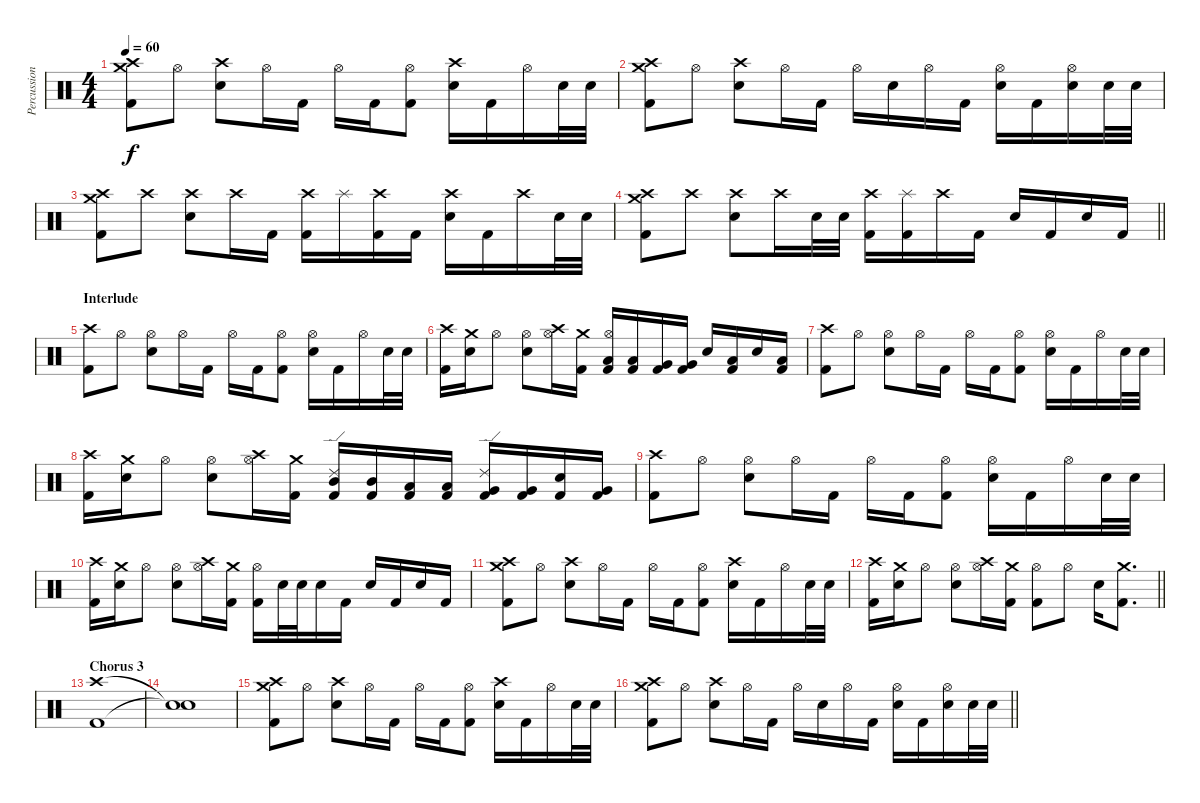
\track ("Percussion" "Percussion") {instrument percussion}
\staff {score}
\articulation defaults
\ts (4 4)
\tempo 60
\clef neutral
\ks c
("Crash medium (hit)" "Crash high (hit)" "Kick (hit) 2").8{dy f} "Hi-Hat (open)".8 ("Crash high (hit)" "Electric Snare (hit)").8 "Hi-Hat (open)".16 "Kick (hit) 2".16 "Hi-Hat (open)".16 "Kick (hit) 2".16 ("Hi-Hat (open)" "Kick (hit) 2").8 ("Crash high (hit)" "Electric Snare (hit)").16 "Kick (hit) 2".16 "Hi-Hat (open)".16 "Electric Snare (hit)".32 "Electric Snare (hit)".32 |
("Crash medium (hit)" "Crash high (hit)" "Kick (hit) 2").8 "Hi-Hat (open)".8 ("Crash high (hit)" "Electric Snare (hit)").8 "Hi-Hat (open)".16 "Kick (hit) 2".16 "Hi-Hat (open)".16 "Electric Snare (hit)".16 "Hi-Hat (open)".16 "Kick (hit) 2".16 ("Hi-Hat (open)" "Electric Snare (hit)").16 "Kick (hit) 2".16 ("Hi-Hat (open)" "Electric Snare (hit)").16 "Electric Snare (hit)".32 "Electric Snare (hit)".32 |
("Crash medium (hit)" "Crash high (hit)" "Kick (hit) 2").8 "Crash high (hit)".8 ("Crash high (hit)" "Electric Snare (hit)").8 "Crash high (hit)".16 "Kick (hit) 2".16 ("Crash high (hit)" "Kick (hit) 2").16 "Splash (hit)".16 ("Crash high (hit)" "Kick (hit) 2").16 "Kick (hit) 2".16 ("Crash high (hit)" "Electric Snare (hit)").16 "Kick (hit) 2".16 "Crash high (hit)".16 "Electric Snare (hit)".32 "Electric Snare (hit)".32 |
\barLineRight lightlight
("Crash medium (hit)" "Crash high (hit)" "Kick (hit) 2").8 "Crash high (hit)".8 ("Crash high (hit)" "Electric Snare (hit)").8 "Crash high (hit)".16 "Electric Snare (hit)".32 "Electric Snare (hit)".32 ("Crash high (hit)" "Kick (hit) 2").16 ("Splash (hit)" "Kick (hit) 2").16 "Crash high (hit)".16 "Kick (hit) 2".16 "Electric Snare (hit)".16 "Kick (hit) 2".16 "Electric Snare (hit)".16 "Kick (hit) 2".16 |
\section ("" "Interlude ")
("Crash high (hit)" "Kick (hit) 2").8 "Hi-Hat (open)".8 ("Hi-Hat (open)" "Electric Snare (hit)").8 "Hi-Hat (open)".16 "Kick (hit) 2".16 "Hi-Hat (open)".16 "Kick (hit) 2".16 ("Hi-Hat (open)" "Kick (hit) 2").8 ("Hi-Hat (open)" "Electric Snare (hit)").16 "Kick (hit) 2".16 "Hi-Hat (open)".16 "Electric Snare (hit)".32 "Electric Snare (hit)".32 |
("Crash high (hit)" "Kick (hit) 2").16 ("Crash medium (hit)" "Electric Snare (hit)").16 "Hi-Hat (open)".8 ("Hi-Hat (open)" "Electric Snare (hit)").8 ("Crash high (hit)" "Hi-Hat (open)").16 ("Crash medium (hit)" "Kick (hit) 2").16 ("Hi-Hat (open)" "Low Tom (hit)" "Kick (hit) 2").16 ("Low Tom (hit)" "Kick (hit) 2").16 ("Very Low Tom (hit)" "Kick (hit) 2").16 ("Very Low Tom (hit)" "Kick (hit) 2").16 "Electric Snare (hit)".16 ("Low Tom (hit)" "Kick (hit) 2").16 "Electric Snare (hit)".16 ("Low Tom (hit)" "Kick (hit) 2").16 |
("Crash high (hit)" "Kick (hit) 2").8 "Hi-Hat (open)".8 ("Hi-Hat (open)" "Electric Snare (hit)").8 "Hi-Hat (open)".16 "Kick (hit) 2".16 "Hi-Hat (open)".16 "Kick (hit) 2".16 ("Hi-Hat (open)" "Kick (hit) 2").8 ("Hi-Hat (open)" "Electric Snare (hit)").16 "Kick (hit) 2".16 "Hi-Hat (open)".16 "Electric Snare (hit)".32 "Electric Snare (hit)".32 |
("Crash high (hit)" "Kick (hit) 2").16 ("Crash medium (hit)" "Electric Snare (hit)").16 "Hi-Hat (open)".8 ("Hi-Hat (open)" "Electric Snare (hit)").8 ("Crash high (hit)" "Hi-Hat (open)").16 ("Crash medium (hit)" "Kick (hit) 2").16 ("Ride (edge) 2" "Mid Tom (hit)" "Kick (hit) 2").16 ("Mid Tom (hit)" "Kick (hit) 2").16 ("Low Tom (hit)" "Kick (hit) 2").16 ("Low Tom (hit)" "Kick (hit) 2").16 ("Ride (edge) 2" "Very Low Tom (hit)" "Kick (hit) 2").16 ("Very Low Tom (hit)" "Kick (hit) 2").16 ("Electric Snare (hit)" "Kick (hit) 2").16 ("Very Low Tom (hit)" "Kick (hit) 2").16 |
("Crash high (hit)" "Kick (hit) 2").8 "Hi-Hat (open)".8 ("Hi-Hat (open)" "Electric Snare (hit)").8 "Hi-Hat (open)".16 "Kick (hit) 2".16 "Hi-Hat (open)".16 "Kick (hit) 2".16 ("Hi-Hat (open)" "Kick (hit) 2").8 ("Hi-Hat (open)" "Electric Snare (hit)").16 "Kick (hit) 2".16 "Hi-Hat (open)".16 "Electric Snare (hit)".32 "Electric Snare (hit)".32 |
("Crash high (hit)" "Kick (hit) 2").16 ("Crash medium (hit)" "Electric Snare (hit)").16 "Hi-Hat (open)".8 ("Hi-Hat (open)" "Electric Snare (hit)").8 ("Crash high (hit)" "Hi-Hat (open)").16 ("Crash medium (hit)" "Kick (hit) 2").16 ("Hi-Hat (open)" "Kick (hit) 2").16 "Electric Snare (hit)".32 "Electric Snare (hit)".32 "Electric Snare (hit)".16 "Kick (hit) 2".16 "Electric Snare (hit)".16 "Kick (hit) 2".16 "Electric Snare (hit)".16 "Kick (hit) 2".16 |
("Crash medium (hit)" "Crash high (hit)" "Kick (hit) 2").8 "Hi-Hat (open)".8 ("Crash high (hit)" "Electric Snare (hit)").8 "Hi-Hat (open)".16 "Kick (hit) 2".16 "Hi-Hat (open)".16 "Kick (hit) 2".16 ("Hi-Hat (open)" "Kick (hit) 2").8 ("Crash high (hit)" "Electric Snare (hit)").16 "Kick (hit) 2".16 "Hi-Hat (open)".16 "Electric Snare (hit)".32 "Electric Snare (hit)".32 |
\barLineRight lightlight
("Crash high (hit)" "Kick (hit) 2").16 ("Crash medium (hit)" "Electric Snare (hit)").16 "Hi-Hat (open)".8 ("Hi-Hat (open)" "Electric Snare (hit)").8 ("Crash high (hit)" "Hi-Hat (open)").16 ("Crash medium (hit)" "Kick (hit) 2").16 ("Hi-Hat (open)" "Kick (hit) 2").8 "Hi-Hat (open)".8 "Electric Snare (hit)".16 ("Crash medium (hit)" "Kick (hit) 2").8{d} |
\section ("" "Chorus 3")
("Crash high (hit)" "Kick (hit) 2").1 |
("Snare (hit)"{t} "Snare (hit)"{t}).1 |
("Crash medium (hit)" "Crash high (hit)" "Kick (hit) 2").8 "Hi-Hat (open)".8 ("Crash high (hit)" "Electric Snare (hit)").8 "Hi-Hat (open)".16 "Kick (hit) 2".16 "Hi-Hat (open)".16 "Kick (hit) 2".16 ("Hi-Hat (open)" "Kick (hit) 2").8 ("Crash high (hit)" "Electric Snare (hit)").16 "Kick (hit) 2".16 "Hi-Hat (open)".16 "Electric Snare (hit)".32 "Electric Snare (hit)".32 |
\barLineRight lightlight
("Crash medium (hit)" "Crash high (hit)" "Kick (hit) 2").8 "Hi-Hat (open)".8 ("Crash high (hit)" "Electric Snare (hit)").8 "Hi-Hat (open)".16 "Kick (hit) 2".16 "Hi-Hat (open)".16 "Electric Snare (hit)".16 "Hi-Hat (open)".16 "Kick (hit) 2".16 ("Hi-Hat (open)" "Electric Snare (hit)").16 "Kick (hit) 2".16 ("Hi-Hat (open)" "Electric Snare (hit)").16 "Electric Snare (hit)".32 "Electric Snare (hit)".32
